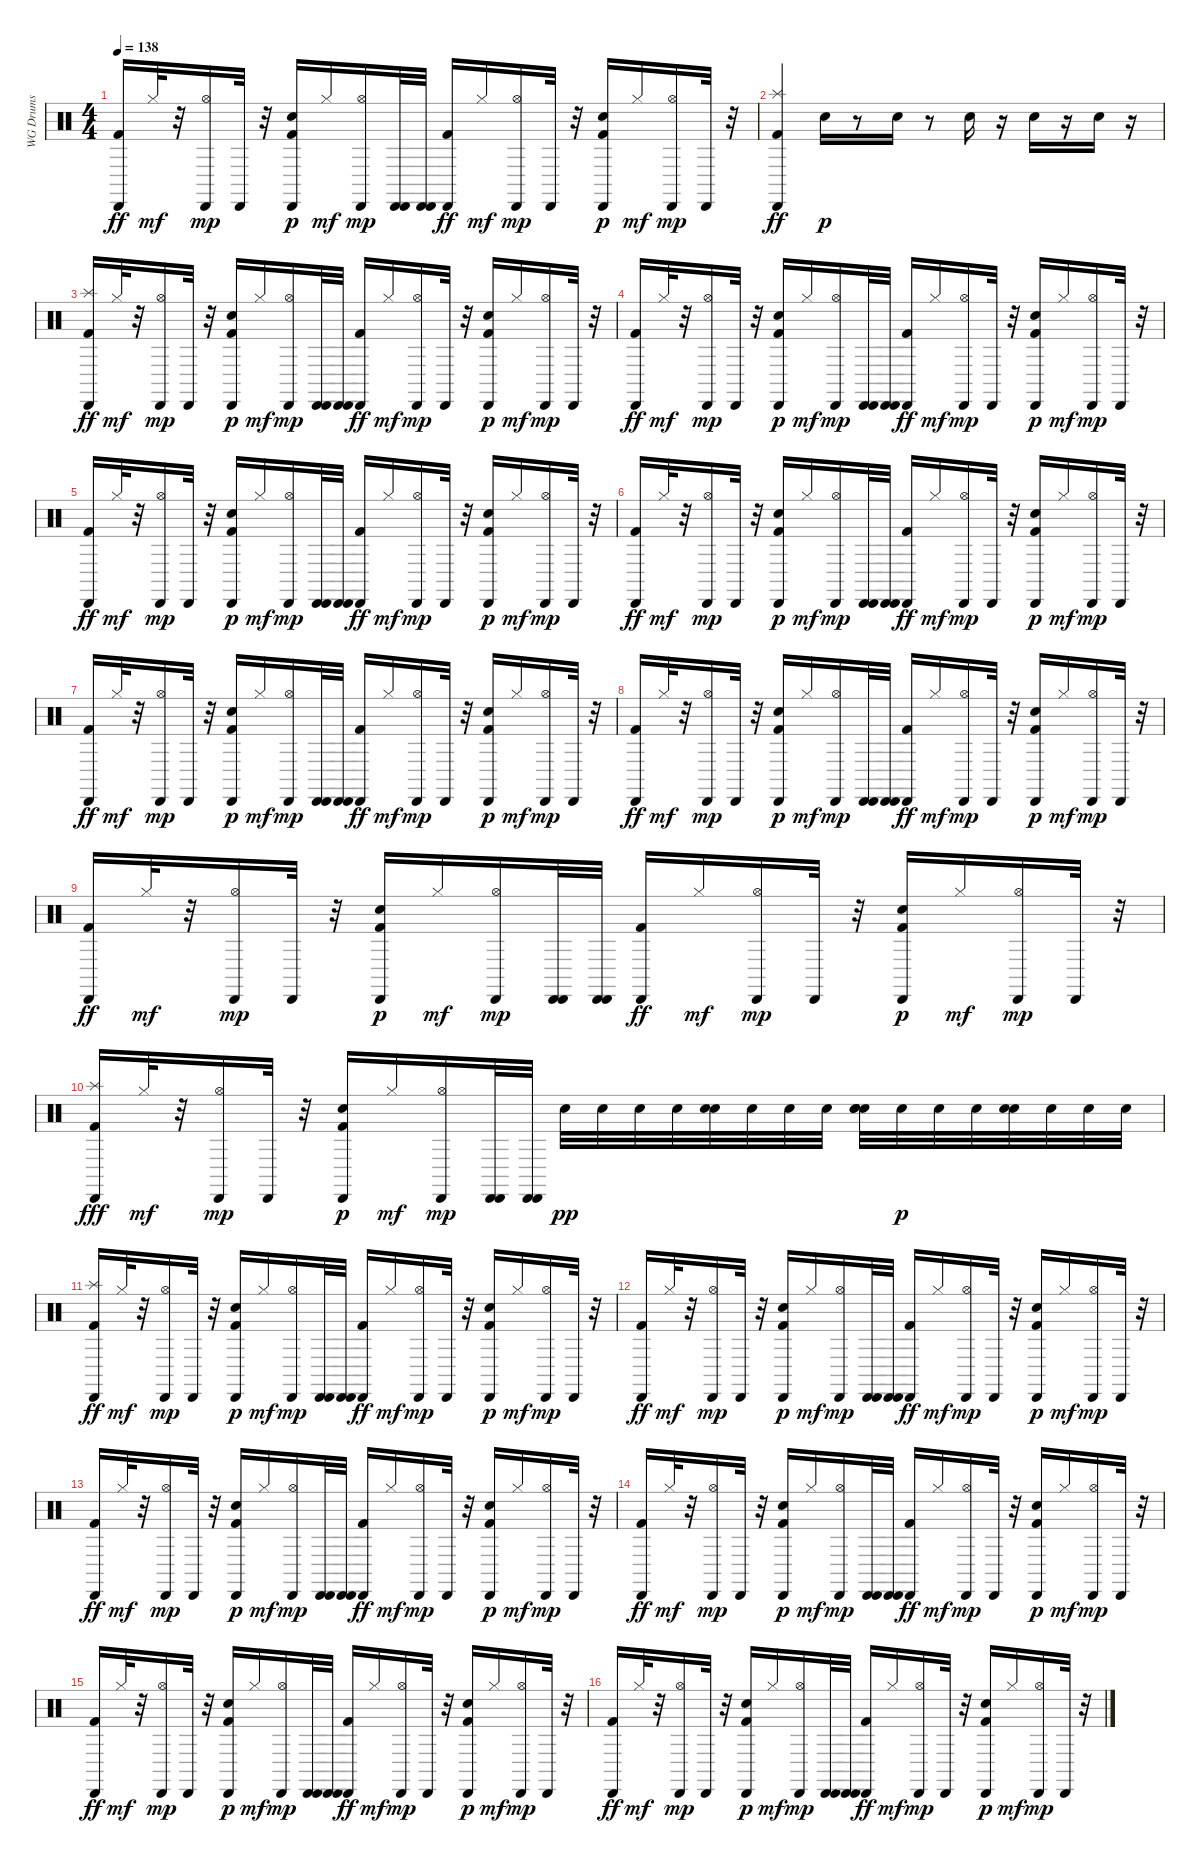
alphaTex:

\track ("WG Drums" "WG Drums") {instrument percussion}
\staff {score}
\articulation defaults
\ts (4 4)
\tempo 138
\clef neutral
\ks c
("Cabasa (hit)" "Kick (hit) 2").16{dy ff} "Hi-Hat (closed)".32{dy mf} r.32 ("Cabasa (hit)" "Hi-Hat (open)").16{dy mp} "Cabasa (hit)".32 r.32 ("Cabasa (hit)" "Kick (hit) 2" "Hand Clap (hit)").16{dy p} "Hi-Hat (closed)".16{dy mf} ("Cabasa (hit)" "Hi-Hat (open)").16{dy mp} ("Cabasa (hit)" "Cabasa (hit)").32 ("Cabasa (hit)" "Cabasa (hit)").32 ("Cabasa (hit)" "Kick (hit) 2").16{dy ff} "Hi-Hat (closed)".16{dy mf} ("Cabasa (hit)" "Hi-Hat (open)").16{dy mp} "Cabasa (hit)".32 r.32 ("Cabasa (hit)" "Kick (hit) 2" "Hand Clap (hit)").16{dy p} "Hi-Hat (closed)".16{dy mf} ("Cabasa (hit)" "Hi-Hat (open)").16{dy mp} "Cabasa (hit)".32 r.32 |
("Splash (hit)" "Cabasa (hit)" "Kick (hit) 2").4{dy ff} "Snare (hit) 2".16{dy p} r.8 "Snare (hit) 2".16 r.8 "Snare (hit) 2".16 r.16 "Snare (hit) 2".16 r.16 "Snare (hit) 2".16 r.16 |
("Splash (hit)" "Cabasa (hit)" "Kick (hit) 2").16{dy ff} "Hi-Hat (closed)".32{dy mf} r.32 ("Cabasa (hit)" "Hi-Hat (open)").16{dy mp} "Cabasa (hit)".32 r.32 ("Cabasa (hit)" "Kick (hit) 2" "Hand Clap (hit)").16{dy p} "Hi-Hat (closed)".16{dy mf} ("Cabasa (hit)" "Hi-Hat (open)").16{dy mp} ("Cabasa (hit)" "Cabasa (hit)").32 ("Cabasa (hit)" "Cabasa (hit)").32 ("Cabasa (hit)" "Kick (hit) 2").16{dy ff} "Hi-Hat (closed)".16{dy mf} ("Cabasa (hit)" "Hi-Hat (open)").16{dy mp} "Cabasa (hit)".32 r.32 ("Cabasa (hit)" "Kick (hit) 2" "Hand Clap (hit)").16{dy p} "Hi-Hat (closed)".16{dy mf} ("Cabasa (hit)" "Hi-Hat (open)").16{dy mp} "Cabasa (hit)".32 r.32 |
("Cabasa (hit)" "Kick (hit) 2").16{dy ff} "Hi-Hat (closed)".32{dy mf} r.32 ("Cabasa (hit)" "Hi-Hat (open)").16{dy mp} "Cabasa (hit)".32 r.32 ("Cabasa (hit)" "Kick (hit) 2" "Hand Clap (hit)").16{dy p} "Hi-Hat (closed)".16{dy mf} ("Cabasa (hit)" "Hi-Hat (open)").16{dy mp} ("Cabasa (hit)" "Cabasa (hit)").32 ("Cabasa (hit)" "Cabasa (hit)").32 ("Cabasa (hit)" "Kick (hit) 2").16{dy ff} "Hi-Hat (closed)".16{dy mf} ("Cabasa (hit)" "Hi-Hat (open)").16{dy mp} "Cabasa (hit)".32 r.32 ("Cabasa (hit)" "Kick (hit) 2" "Hand Clap (hit)").16{dy p} "Hi-Hat (closed)".16{dy mf} ("Cabasa (hit)" "Hi-Hat (open)").16{dy mp} "Cabasa (hit)".32 r.32 |
("Cabasa (hit)" "Kick (hit) 2").16{dy ff} "Hi-Hat (closed)".32{dy mf} r.32 ("Cabasa (hit)" "Hi-Hat (open)").16{dy mp} "Cabasa (hit)".32 r.32 ("Cabasa (hit)" "Kick (hit) 2" "Hand Clap (hit)").16{dy p} "Hi-Hat (closed)".16{dy mf} ("Cabasa (hit)" "Hi-Hat (open)").16{dy mp} ("Cabasa (hit)" "Cabasa (hit)").32 ("Cabasa (hit)" "Cabasa (hit)").32 ("Cabasa (hit)" "Kick (hit) 2").16{dy ff} "Hi-Hat (closed)".16{dy mf} ("Cabasa (hit)" "Hi-Hat (open)").16{dy mp} "Cabasa (hit)".32 r.32 ("Cabasa (hit)" "Kick (hit) 2" "Hand Clap (hit)").16{dy p} "Hi-Hat (closed)".16{dy mf} ("Cabasa (hit)" "Hi-Hat (open)").16{dy mp} "Cabasa (hit)".32 r.32 |
("Cabasa (hit)" "Kick (hit) 2").16{dy ff} "Hi-Hat (closed)".32{dy mf} r.32 ("Cabasa (hit)" "Hi-Hat (open)").16{dy mp} "Cabasa (hit)".32 r.32 ("Cabasa (hit)" "Kick (hit) 2" "Hand Clap (hit)").16{dy p} "Hi-Hat (closed)".16{dy mf} ("Cabasa (hit)" "Hi-Hat (open)").16{dy mp} ("Cabasa (hit)" "Cabasa (hit)").32 ("Cabasa (hit)" "Cabasa (hit)").32 ("Cabasa (hit)" "Kick (hit) 2").16{dy ff} "Hi-Hat (closed)".16{dy mf} ("Cabasa (hit)" "Hi-Hat (open)").16{dy mp} "Cabasa (hit)".32 r.32 ("Cabasa (hit)" "Kick (hit) 2" "Hand Clap (hit)").16{dy p} "Hi-Hat (closed)".16{dy mf} ("Cabasa (hit)" "Hi-Hat (open)").16{dy mp} "Cabasa (hit)".32 r.32 |
("Cabasa (hit)" "Kick (hit) 2").16{dy ff} "Hi-Hat (closed)".32{dy mf} r.32 ("Cabasa (hit)" "Hi-Hat (open)").16{dy mp} "Cabasa (hit)".32 r.32 ("Cabasa (hit)" "Kick (hit) 2" "Hand Clap (hit)").16{dy p} "Hi-Hat (closed)".16{dy mf} ("Cabasa (hit)" "Hi-Hat (open)").16{dy mp} ("Cabasa (hit)" "Cabasa (hit)").32 ("Cabasa (hit)" "Cabasa (hit)").32 ("Cabasa (hit)" "Kick (hit) 2").16{dy ff} "Hi-Hat (closed)".16{dy mf} ("Cabasa (hit)" "Hi-Hat (open)").16{dy mp} "Cabasa (hit)".32 r.32 ("Cabasa (hit)" "Kick (hit) 2" "Hand Clap (hit)").16{dy p} "Hi-Hat (closed)".16{dy mf} ("Cabasa (hit)" "Hi-Hat (open)").16{dy mp} "Cabasa (hit)".32 r.32 |
("Cabasa (hit)" "Kick (hit) 2").16{dy ff} "Hi-Hat (closed)".32{dy mf} r.32 ("Cabasa (hit)" "Hi-Hat (open)").16{dy mp} "Cabasa (hit)".32 r.32 ("Cabasa (hit)" "Kick (hit) 2" "Hand Clap (hit)").16{dy p} "Hi-Hat (closed)".16{dy mf} ("Cabasa (hit)" "Hi-Hat (open)").16{dy mp} ("Cabasa (hit)" "Cabasa (hit)").32 ("Cabasa (hit)" "Cabasa (hit)").32 ("Cabasa (hit)" "Kick (hit) 2").16{dy ff} "Hi-Hat (closed)".16{dy mf} ("Cabasa (hit)" "Hi-Hat (open)").16{dy mp} "Cabasa (hit)".32 r.32 ("Cabasa (hit)" "Kick (hit) 2" "Hand Clap (hit)").16{dy p} "Hi-Hat (closed)".16{dy mf} ("Cabasa (hit)" "Hi-Hat (open)").16{dy mp} "Cabasa (hit)".32 r.32 |
("Cabasa (hit)" "Kick (hit) 2").16{dy ff} "Hi-Hat (closed)".32{dy mf} r.32 ("Cabasa (hit)" "Hi-Hat (open)").16{dy mp} "Cabasa (hit)".32 r.32 ("Cabasa (hit)" "Kick (hit) 2" "Hand Clap (hit)").16{dy p} "Hi-Hat (closed)".16{dy mf} ("Cabasa (hit)" "Hi-Hat (open)").16{dy mp} ("Cabasa (hit)" "Cabasa (hit)").32 ("Cabasa (hit)" "Cabasa (hit)").32 ("Cabasa (hit)" "Kick (hit) 2").16{dy ff} "Hi-Hat (closed)".16{dy mf} ("Cabasa (hit)" "Hi-Hat (open)").16{dy mp} "Cabasa (hit)".32 r.32 ("Cabasa (hit)" "Kick (hit) 2" "Hand Clap (hit)").16{dy p} "Hi-Hat (closed)".16{dy mf} ("Cabasa (hit)" "Hi-Hat (open)").16{dy mp} "Cabasa (hit)".32 r.32 |
("Cabasa (hit)" "Kick (hit) 2" "Splash (hit)").16{dy fff} "Hi-Hat (closed)".32{dy mf} r.32 ("Cabasa (hit)" "Hi-Hat (open)").16{dy mp} "Cabasa (hit)".32 r.32 ("Cabasa (hit)" "Kick (hit) 2" "Hand Clap (hit)").16{dy p} "Hi-Hat (closed)".16{dy mf} ("Cabasa (hit)" "Hi-Hat (open)").16{dy mp} ("Cabasa (hit)" "Cabasa (hit)").32 ("Cabasa (hit)" "Cabasa (hit)").32 "Electric Snare (hit)".32{dy pp} "Electric Snare (hit)".32 "Electric Snare (hit)".32 "Electric Snare (hit)".32 ("Snare (hit) 2" "Electric Snare (hit)").32 "Electric Snare (hit)".32 "Electric Snare (hit)".32 "Electric Snare (hit)".32 ("Hand Clap (hit)" "Snare (hit) 2" "Electric Snare (hit)").32 "Electric Snare (hit)".32{dy p} "Electric Snare (hit)".32 "Electric Snare (hit)".32 ("Snare (hit) 2" "Electric Snare (hit)").32 "Electric Snare (hit)".32 "Electric Snare (hit)".32 "Electric Snare (hit)".32 |
("Splash (hit)" "Cabasa (hit)" "Kick (hit) 2").16{dy ff} "Hi-Hat (closed)".32{dy mf} r.32 ("Cabasa (hit)" "Hi-Hat (open)").16{dy mp} "Cabasa (hit)".32 r.32 ("Cabasa (hit)" "Kick (hit) 2" "Hand Clap (hit)").16{dy p} "Hi-Hat (closed)".16{dy mf} ("Cabasa (hit)" "Hi-Hat (open)").16{dy mp} ("Cabasa (hit)" "Cabasa (hit)").32 ("Cabasa (hit)" "Cabasa (hit)").32 ("Cabasa (hit)" "Kick (hit) 2").16{dy ff} "Hi-Hat (closed)".16{dy mf} ("Cabasa (hit)" "Hi-Hat (open)").16{dy mp} "Cabasa (hit)".32 r.32 ("Cabasa (hit)" "Kick (hit) 2" "Hand Clap (hit)").16{dy p} "Hi-Hat (closed)".16{dy mf} ("Cabasa (hit)" "Hi-Hat (open)").16{dy mp} "Cabasa (hit)".32 r.32 |
("Cabasa (hit)" "Kick (hit) 2").16{dy ff} "Hi-Hat (closed)".32{dy mf} r.32 ("Cabasa (hit)" "Hi-Hat (open)").16{dy mp} "Cabasa (hit)".32 r.32 ("Cabasa (hit)" "Kick (hit) 2" "Hand Clap (hit)").16{dy p} "Hi-Hat (closed)".16{dy mf} ("Cabasa (hit)" "Hi-Hat (open)").16{dy mp} ("Cabasa (hit)" "Cabasa (hit)").32 ("Cabasa (hit)" "Cabasa (hit)").32 ("Cabasa (hit)" "Kick (hit) 2").16{dy ff} "Hi-Hat (closed)".16{dy mf} ("Cabasa (hit)" "Hi-Hat (open)").16{dy mp} "Cabasa (hit)".32 r.32 ("Cabasa (hit)" "Kick (hit) 2" "Hand Clap (hit)").16{dy p} "Hi-Hat (closed)".16{dy mf} ("Cabasa (hit)" "Hi-Hat (open)").16{dy mp} "Cabasa (hit)".32 r.32 |
("Cabasa (hit)" "Kick (hit) 2").16{dy ff} "Hi-Hat (closed)".32{dy mf} r.32 ("Cabasa (hit)" "Hi-Hat (open)").16{dy mp} "Cabasa (hit)".32 r.32 ("Cabasa (hit)" "Kick (hit) 2" "Hand Clap (hit)").16{dy p} "Hi-Hat (closed)".16{dy mf} ("Cabasa (hit)" "Hi-Hat (open)").16{dy mp} ("Cabasa (hit)" "Cabasa (hit)").32 ("Cabasa (hit)" "Cabasa (hit)").32 ("Cabasa (hit)" "Kick (hit) 2").16{dy ff} "Hi-Hat (closed)".16{dy mf} ("Cabasa (hit)" "Hi-Hat (open)").16{dy mp} "Cabasa (hit)".32 r.32 ("Cabasa (hit)" "Kick (hit) 2" "Hand Clap (hit)").16{dy p} "Hi-Hat (closed)".16{dy mf} ("Cabasa (hit)" "Hi-Hat (open)").16{dy mp} "Cabasa (hit)".32 r.32 |
("Cabasa (hit)" "Kick (hit) 2").16{dy ff} "Hi-Hat (closed)".32{dy mf} r.32 ("Cabasa (hit)" "Hi-Hat (open)").16{dy mp} "Cabasa (hit)".32 r.32 ("Cabasa (hit)" "Kick (hit) 2" "Hand Clap (hit)").16{dy p} "Hi-Hat (closed)".16{dy mf} ("Cabasa (hit)" "Hi-Hat (open)").16{dy mp} ("Cabasa (hit)" "Cabasa (hit)").32 ("Cabasa (hit)" "Cabasa (hit)").32 ("Cabasa (hit)" "Kick (hit) 2").16{dy ff} "Hi-Hat (closed)".16{dy mf} ("Cabasa (hit)" "Hi-Hat (open)").16{dy mp} "Cabasa (hit)".32 r.32 ("Cabasa (hit)" "Kick (hit) 2" "Hand Clap (hit)").16{dy p} "Hi-Hat (closed)".16{dy mf} ("Cabasa (hit)" "Hi-Hat (open)").16{dy mp} "Cabasa (hit)".32 r.32 |
("Cabasa (hit)" "Kick (hit) 2").16{dy ff} "Hi-Hat (closed)".32{dy mf} r.32 ("Cabasa (hit)" "Hi-Hat (open)").16{dy mp} "Cabasa (hit)".32 r.32 ("Cabasa (hit)" "Kick (hit) 2" "Hand Clap (hit)").16{dy p} "Hi-Hat (closed)".16{dy mf} ("Cabasa (hit)" "Hi-Hat (open)").16{dy mp} ("Cabasa (hit)" "Cabasa (hit)").32 ("Cabasa (hit)" "Cabasa (hit)").32 ("Cabasa (hit)" "Kick (hit) 2").16{dy ff} "Hi-Hat (closed)".16{dy mf} ("Cabasa (hit)" "Hi-Hat (open)").16{dy mp} "Cabasa (hit)".32 r.32 ("Cabasa (hit)" "Kick (hit) 2" "Hand Clap (hit)").16{dy p} "Hi-Hat (closed)".16{dy mf} ("Cabasa (hit)" "Hi-Hat (open)").16{dy mp} "Cabasa (hit)".32 r.32 |
("Cabasa (hit)" "Kick (hit) 2").16{dy ff} "Hi-Hat (closed)".32{dy mf} r.32 ("Cabasa (hit)" "Hi-Hat (open)").16{dy mp} "Cabasa (hit)".32 r.32 ("Cabasa (hit)" "Kick (hit) 2" "Hand Clap (hit)").16{dy p} "Hi-Hat (closed)".16{dy mf} ("Cabasa (hit)" "Hi-Hat (open)").16{dy mp} ("Cabasa (hit)" "Cabasa (hit)").32 ("Cabasa (hit)" "Cabasa (hit)").32 ("Cabasa (hit)" "Kick (hit) 2").16{dy ff} "Hi-Hat (closed)".16{dy mf} ("Cabasa (hit)" "Hi-Hat (open)").16{dy mp} "Cabasa (hit)".32 r.32 ("Cabasa (hit)" "Kick (hit) 2" "Hand Clap (hit)").16{dy p} "Hi-Hat (closed)".16{dy mf} ("Cabasa (hit)" "Hi-Hat (open)").16{dy mp} "Cabasa (hit)".32 r.32
